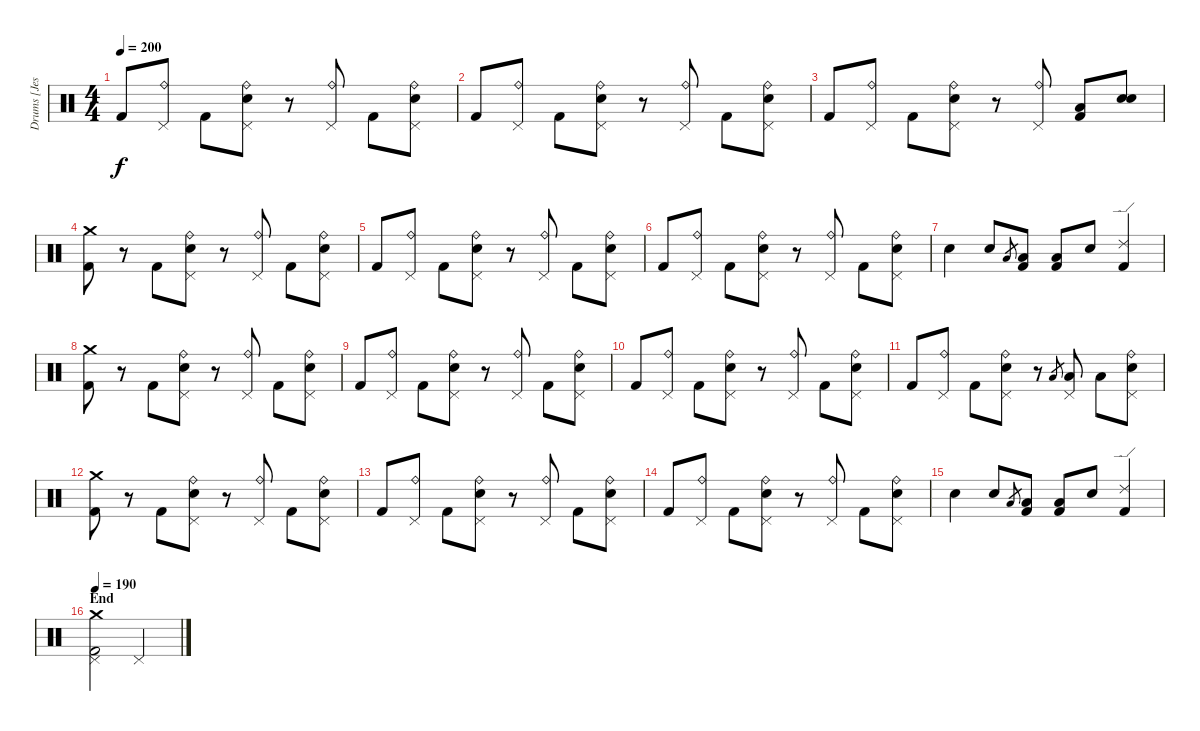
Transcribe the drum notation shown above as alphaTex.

\track ("Drums [Jesse Ingelevics]" "Drums [Jes") {instrument percussion}
\staff {score}
\articulation defaults
\ts (4 4)
\tempo 200
\clef neutral
\ks c "Kick (hit) 2".8{dy f}
("Ride (bell)" "Pedal Hi-Hat (hit)").8 "Kick (hit) 2".8 ("Ride (bell)" "Pedal Hi-Hat (hit)" "Electric Snare (hit)").8 r.8 ("Ride (bell)" "Pedal Hi-Hat (hit)").8 "Kick (hit) 2".8 ("Ride (bell)" "Pedal Hi-Hat (hit)" "Electric Snare (hit)").8 |
"Kick (hit) 2".8 ("Ride (bell)" "Pedal Hi-Hat (hit)").8 "Kick (hit) 2".8 ("Ride (bell)" "Pedal Hi-Hat (hit)" "Electric Snare (hit)").8 r.8 ("Ride (bell)" "Pedal Hi-Hat (hit)").8 "Kick (hit) 2".8 ("Ride (bell)" "Pedal Hi-Hat (hit)" "Electric Snare (hit)").8 |
"Kick (hit) 2".8 ("Ride (bell)" "Pedal Hi-Hat (hit)").8 "Kick (hit) 2".8 ("Ride (bell)" "Pedal Hi-Hat (hit)" "Electric Snare (hit)").8 r.8 ("Ride (bell)" "Pedal Hi-Hat (hit)").8 ("Low Tom (hit)" "Kick (hit) 2").8 ("Electric Snare (hit)" "Electric Snare (hit)").8 |
("Crash medium (hit)" "Kick (hit) 2").8 r.8 "Kick (hit) 2".8 ("Ride (bell)" "Pedal Hi-Hat (hit)" "Electric Snare (hit)").8 r.8 ("Ride (bell)" "Pedal Hi-Hat (hit)").8 "Kick (hit) 2".8 ("Ride (bell)" "Pedal Hi-Hat (hit)" "Electric Snare (hit)").8 |
"Kick (hit) 2".8 ("Ride (bell)" "Pedal Hi-Hat (hit)").8 "Kick (hit) 2".8 ("Ride (bell)" "Pedal Hi-Hat (hit)" "Electric Snare (hit)").8 r.8 ("Ride (bell)" "Pedal Hi-Hat (hit)").8 "Kick (hit) 2".8 ("Ride (bell)" "Pedal Hi-Hat (hit)" "Electric Snare (hit)").8 |
"Kick (hit) 2".8 ("Ride (bell)" "Pedal Hi-Hat (hit)").8 "Kick (hit) 2".8 ("Ride (bell)" "Pedal Hi-Hat (hit)" "Electric Snare (hit)").8 r.8 ("Ride (bell)" "Pedal Hi-Hat (hit)").8 "Kick (hit) 2".8 ("Ride (bell)" "Pedal Hi-Hat (hit)" "Electric Snare (hit)").8 |
"Electric Snare (hit)".4 "Electric Snare (hit)".8 "Low Tom (hit)".8{gr} ("Low Tom (hit)" "Kick (hit) 2").8 ("Low Tom (hit)" "Kick (hit) 2").8 "Electric Snare (hit)".8 ("Ride (edge) 2" "Kick (hit) 2").4 |
("Crash medium (hit)" "Kick (hit) 2").8 r.8 "Kick (hit) 2".8 ("Ride (bell)" "Pedal Hi-Hat (hit)" "Electric Snare (hit)").8 r.8 ("Ride (bell)" "Pedal Hi-Hat (hit)").8 "Kick (hit) 2".8 ("Ride (bell)" "Pedal Hi-Hat (hit)" "Electric Snare (hit)").8 |
"Kick (hit) 2".8 ("Ride (bell)" "Pedal Hi-Hat (hit)").8 "Kick (hit) 2".8 ("Ride (bell)" "Pedal Hi-Hat (hit)" "Electric Snare (hit)").8 r.8 ("Ride (bell)" "Pedal Hi-Hat (hit)").8 "Kick (hit) 2".8 ("Ride (bell)" "Pedal Hi-Hat (hit)" "Electric Snare (hit)").8 |
"Kick (hit) 2".8 ("Ride (bell)" "Pedal Hi-Hat (hit)").8 "Kick (hit) 2".8 ("Ride (bell)" "Pedal Hi-Hat (hit)" "Electric Snare (hit)").8 r.8 ("Ride (bell)" "Pedal Hi-Hat (hit)").8 "Kick (hit) 2".8 ("Ride (bell)" "Pedal Hi-Hat (hit)" "Electric Snare (hit)").8 |
"Kick (hit) 2".8 ("Ride (bell)" "Pedal Hi-Hat (hit)").8 "Kick (hit) 2".8 ("Ride (bell)" "Pedal Hi-Hat (hit)" "Electric Snare (hit)").8 r.8 "Low Tom (hit)".8{gr} ("Pedal Hi-Hat (hit)" "Low Tom (hit)").8 "Low Tom (hit)".8 ("Ride (bell)" "Pedal Hi-Hat (hit)" "Electric Snare (hit)").8 |
("Crash medium (hit)" "Kick (hit) 2").8 r.8 "Kick (hit) 2".8 ("Ride (bell)" "Pedal Hi-Hat (hit)" "Electric Snare (hit)").8 r.8 ("Ride (bell)" "Pedal Hi-Hat (hit)").8 "Kick (hit) 2".8 ("Ride (bell)" "Pedal Hi-Hat (hit)" "Electric Snare (hit)").8 |
"Kick (hit) 2".8 ("Ride (bell)" "Pedal Hi-Hat (hit)").8 "Kick (hit) 2".8 ("Ride (bell)" "Pedal Hi-Hat (hit)" "Electric Snare (hit)").8 r.8 ("Ride (bell)" "Pedal Hi-Hat (hit)").8 "Kick (hit) 2".8 ("Ride (bell)" "Pedal Hi-Hat (hit)" "Electric Snare (hit)").8 |
"Kick (hit) 2".8 ("Ride (bell)" "Pedal Hi-Hat (hit)").8 "Kick (hit) 2".8 ("Ride (bell)" "Pedal Hi-Hat (hit)" "Electric Snare (hit)").8 r.8 ("Ride (bell)" "Pedal Hi-Hat (hit)").8 "Kick (hit) 2".8 ("Ride (bell)" "Pedal Hi-Hat (hit)" "Electric Snare (hit)").8 |
"Electric Snare (hit)".4 "Electric Snare (hit)".8 "Low Tom (hit)".8{gr} ("Low Tom (hit)" "Kick (hit) 2").8 ("Low Tom (hit)" "Kick (hit) 2").8 "Electric Snare (hit)".8 ("Ride (edge) 2" "Kick (hit) 2").4 |
\section ("" "End")
\tempo 190
("Crash medium (hit)" "Pedal Hi-Hat (hit)" "Kick (hit) 2").2 "Pedal Hi-Hat (hit)".2
